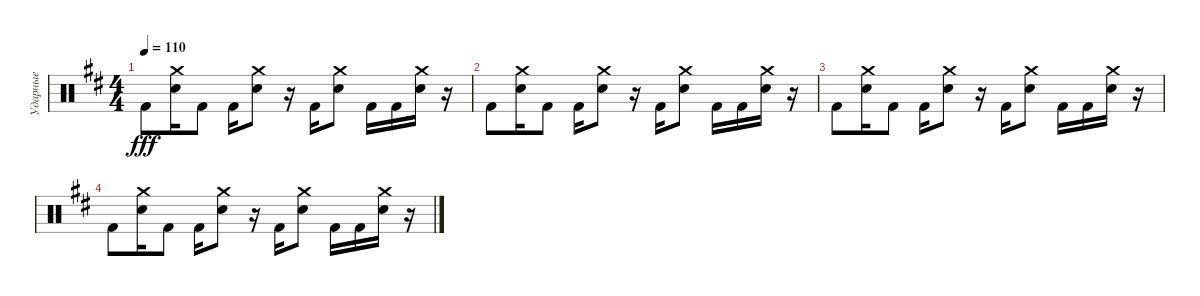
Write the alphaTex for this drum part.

\track ("Ударные" "Ударные") {instrument percussion}
\staff {score}
\articulation defaults
\ts (4 4)
\tempo 110
\clef neutral
\ks d "Kick (hit) 2".8{dy fff}
("Crash medium (hit)" "Electric Snare (hit)").16 "Kick (hit) 2".8 "Kick (hit) 2".16 ("Crash medium (hit)" "Electric Snare (hit)").8 r.16 "Kick (hit) 2".16 ("Crash medium (hit)" "Electric Snare (hit)").8 "Kick (hit) 2".16 "Kick (hit) 2".16 ("Crash medium (hit)" "Electric Snare (hit)").16 r.16 |
"Kick (hit) 2".8 ("Crash medium (hit)" "Electric Snare (hit)").16 "Kick (hit) 2".8 "Kick (hit) 2".16 ("Crash medium (hit)" "Electric Snare (hit)").8 r.16 "Kick (hit) 2".16 ("Crash medium (hit)" "Electric Snare (hit)").8 "Kick (hit) 2".16 "Kick (hit) 2".16 ("Crash medium (hit)" "Electric Snare (hit)").16 r.16 |
"Kick (hit) 2".8 ("Crash medium (hit)" "Electric Snare (hit)").16 "Kick (hit) 2".8 "Kick (hit) 2".16 ("Crash medium (hit)" "Electric Snare (hit)").8 r.16 "Kick (hit) 2".16 ("Crash medium (hit)" "Electric Snare (hit)").8 "Kick (hit) 2".16 "Kick (hit) 2".16 ("Crash medium (hit)" "Electric Snare (hit)").16 r.16 |
"Kick (hit) 2".8 ("Crash medium (hit)" "Electric Snare (hit)").16 "Kick (hit) 2".8 "Kick (hit) 2".16 ("Crash medium (hit)" "Electric Snare (hit)").8 r.16 "Kick (hit) 2".16 ("Crash medium (hit)" "Electric Snare (hit)").8 "Kick (hit) 2".16 "Kick (hit) 2".16 ("Crash medium (hit)" "Electric Snare (hit)").16 r.16
